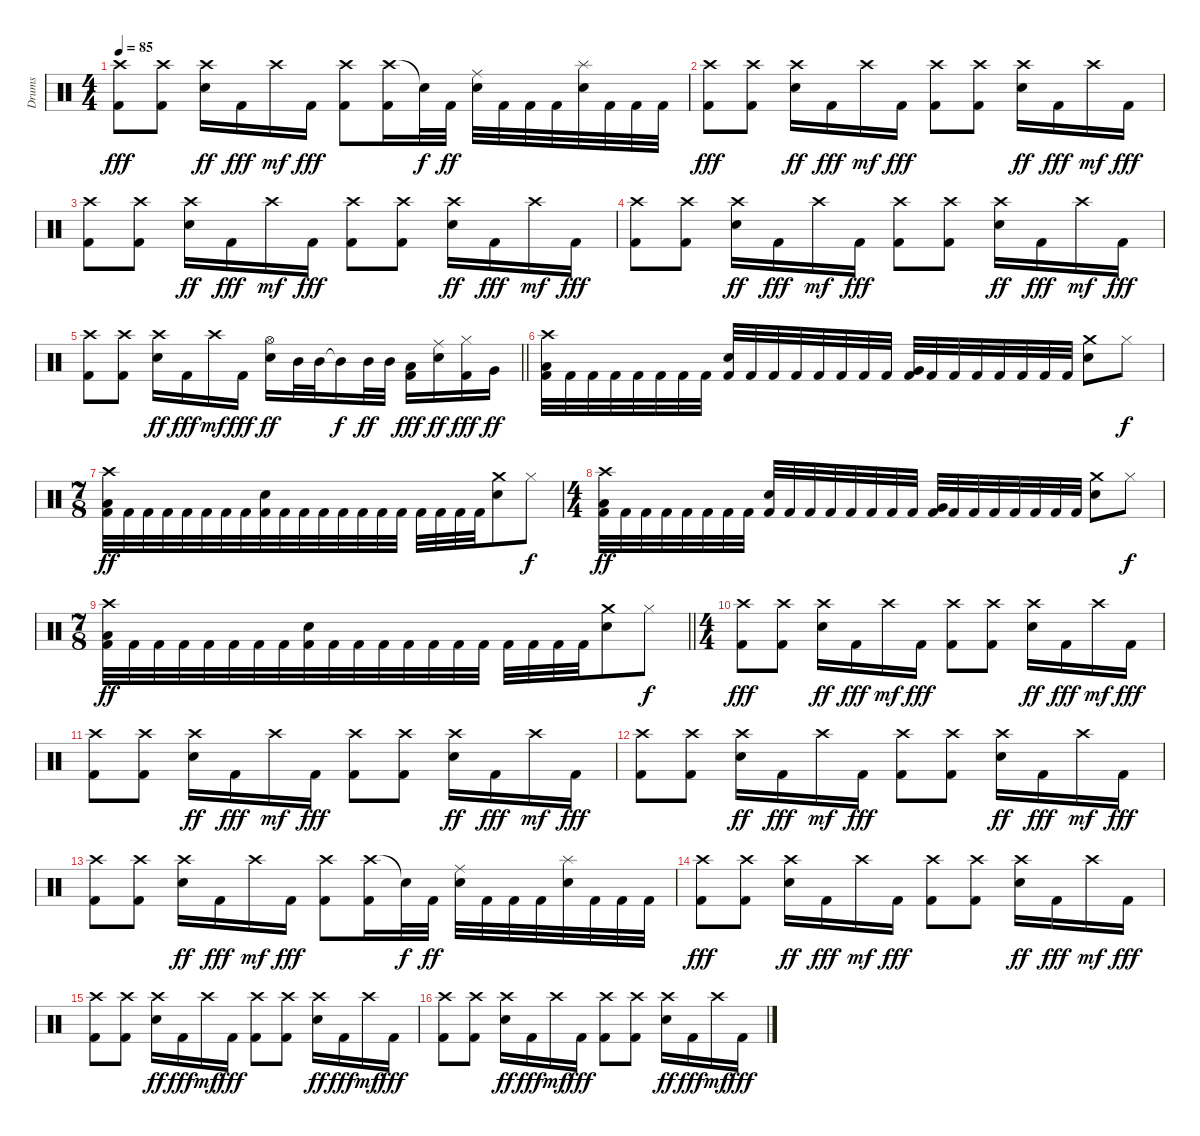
\track ("Drums" "Drums") {instrument percussion}
\staff {score}
\articulation defaults
\ts (4 4)
\tempo 85
\clef neutral
\ks c
("Crash high (hit)" "Kick (hit) 2").8{dy fff} ("Crash high (hit)" "Kick (hit) 2").8 ("Crash high (hit)" "Snare (hit) 2").16{dy ff} "Kick (hit) 2".16{dy fff} "Crash high (hit)".16{dy mf} "Kick (hit) 2".16{dy fff} ("Crash high (hit)" "Kick (hit) 2").8 ("Crash high (hit)" "Kick (hit) 2").16 "Snare (hit)"{t}.32{dy f} "Kick (hit) 2".32{dy ff} ("Ride (middle)" "Snare (hit) 2").32 "Kick (hit) 2".32 "Kick (hit) 2".32 "Kick (hit) 2".32 ("Splash (hit)" "Snare (hit) 2").32 "Kick (hit) 2".32 "Kick (hit) 2".32 "Kick (hit) 2".32 |
("Crash high (hit)" "Kick (hit) 2").8{dy fff} ("Crash high (hit)" "Kick (hit) 2").8 ("Crash high (hit)" "Snare (hit) 2").16{dy ff} "Kick (hit) 2".16{dy fff} "Crash high (hit)".16{dy mf} "Kick (hit) 2".16{dy fff} ("Crash high (hit)" "Kick (hit) 2").8 ("Crash high (hit)" "Kick (hit) 2").8 ("Crash high (hit)" "Snare (hit) 2").16{dy ff} "Kick (hit) 2".16{dy fff} "Crash high (hit)".16{dy mf} "Kick (hit) 2".16{dy fff} |
("Crash high (hit)" "Kick (hit) 2").8 ("Crash high (hit)" "Kick (hit) 2").8 ("Crash high (hit)" "Snare (hit) 2").16{dy ff} "Kick (hit) 2".16{dy fff} "Crash high (hit)".16{dy mf} "Kick (hit) 2".16{dy fff} ("Crash high (hit)" "Kick (hit) 2").8 ("Crash high (hit)" "Kick (hit) 2").8 ("Crash high (hit)" "Snare (hit) 2").16{dy ff} "Kick (hit) 2".16{dy fff} "Crash high (hit)".16{dy mf} "Kick (hit) 2".16{dy fff} |
("Crash high (hit)" "Kick (hit) 2").8 ("Crash high (hit)" "Kick (hit) 2").8 ("Crash high (hit)" "Snare (hit) 2").16{dy ff} "Kick (hit) 2".16{dy fff} "Crash high (hit)".16{dy mf} "Kick (hit) 2".16{dy fff} ("Crash high (hit)" "Kick (hit) 2").8 ("Crash high (hit)" "Kick (hit) 2").8 ("Crash high (hit)" "Snare (hit) 2").16{dy ff} "Kick (hit) 2".16{dy fff} "Crash high (hit)".16{dy mf} "Kick (hit) 2".16{dy fff} |
\barLineRight lightlight
("Crash high (hit)" "Kick (hit) 2").8 ("Crash high (hit)" "Kick (hit) 2").8 ("Crash high (hit)" "Snare (hit) 2").16{dy ff} "Kick (hit) 2".16{dy fff} "Crash high (hit)".16{dy mf} "Kick (hit) 2".16{dy fff} ("Hi-Hat (open)" "Snare (hit) 2").16{dy ff} "Mid Tom (hit)".32 "Mid Tom (hit)".32 "Mid Tom (hit)"{t}.16{dy f} "Mid Tom (hit)".32{dy ff} "Mid Tom (hit)".32 ("Low Tom (hit)" "Kick (hit) 2").16{dy fff} ("Ride (middle)" "Snare (hit) 2").16{dy ff} ("Hi-Hat (closed)" "Kick (hit) 2").16{dy fff} "Very Low Tom (hit)".16{dy ff} |
\section ("" "")
("Crash high (hit)" "Low Tom (hit)" "Kick (hit) 2").32 "Kick (hit) 2".32 "Kick (hit) 2".32 "Kick (hit) 2".32 "Kick (hit) 2".32 "Kick (hit) 2".32 "Kick (hit) 2".32 "Kick (hit) 2".32 ("Snare (hit) 2" "Kick (hit) 2").32 "Kick (hit) 2".32 "Kick (hit) 2".32 "Kick (hit) 2".32 "Kick (hit) 2".32 "Kick (hit) 2".32 "Kick (hit) 2".32 "Kick (hit) 2".32 ("Very Low Tom (hit)" "Kick (hit) 2").32 "Kick (hit) 2".32 "Kick (hit) 2".32 "Kick (hit) 2".32 "Kick (hit) 2".32 "Kick (hit) 2".32 "Kick (hit) 2".32 "Kick (hit) 2".32 ("Crash medium (hit)" "Snare (hit) 2").8 "Hi-Hat (closed)".8{dy f} |
\ts (7 8)
("Crash high (hit)" "Low Tom (hit)" "Kick (hit) 2").32{dy ff} "Kick (hit) 2".32 "Kick (hit) 2".32 "Kick (hit) 2".32 "Kick (hit) 2".32 "Kick (hit) 2".32 "Kick (hit) 2".32 "Kick (hit) 2".32 ("Snare (hit) 2" "Kick (hit) 2").32 "Kick (hit) 2".32 "Kick (hit) 2".32 "Kick (hit) 2".32 "Kick (hit) 2".32 "Kick (hit) 2".32 "Kick (hit) 2".32 "Kick (hit) 2".32 "Kick (hit) 2".32 "Kick (hit) 2".32 "Kick (hit) 2".32 "Kick (hit) 2".32 ("Crash medium (hit)" "Snare (hit) 2").8 "Hi-Hat (closed)".8{dy f} |
\ts (4 4)
("Crash high (hit)" "Low Tom (hit)" "Kick (hit) 2").32{dy ff} "Kick (hit) 2".32 "Kick (hit) 2".32 "Kick (hit) 2".32 "Kick (hit) 2".32 "Kick (hit) 2".32 "Kick (hit) 2".32 "Kick (hit) 2".32 ("Snare (hit) 2" "Kick (hit) 2").32 "Kick (hit) 2".32 "Kick (hit) 2".32 "Kick (hit) 2".32 "Kick (hit) 2".32 "Kick (hit) 2".32 "Kick (hit) 2".32 "Kick (hit) 2".32 ("Very Low Tom (hit)" "Kick (hit) 2").32 "Kick (hit) 2".32 "Kick (hit) 2".32 "Kick (hit) 2".32 "Kick (hit) 2".32 "Kick (hit) 2".32 "Kick (hit) 2".32 "Kick (hit) 2".32 ("Crash medium (hit)" "Snare (hit) 2").8 "Hi-Hat (closed)".8{dy f} |
\ts (7 8)
\barLineRight lightlight
("Crash high (hit)" "Low Tom (hit)" "Kick (hit) 2").32{dy ff} "Kick (hit) 2".32 "Kick (hit) 2".32 "Kick (hit) 2".32 "Kick (hit) 2".32 "Kick (hit) 2".32 "Kick (hit) 2".32 "Kick (hit) 2".32 ("Snare (hit) 2" "Kick (hit) 2").32 "Kick (hit) 2".32 "Kick (hit) 2".32 "Kick (hit) 2".32 "Kick (hit) 2".32 "Kick (hit) 2".32 "Kick (hit) 2".32 "Kick (hit) 2".32 "Kick (hit) 2".32 "Kick (hit) 2".32 "Kick (hit) 2".32 "Kick (hit) 2".32 ("Crash medium (hit)" "Snare (hit) 2").8 "Hi-Hat (closed)".8{dy f} |
\ts (4 4)
\section ("" "")
("Crash high (hit)" "Kick (hit) 2").8{dy fff} ("Crash high (hit)" "Kick (hit) 2").8 ("Crash high (hit)" "Snare (hit) 2").16{dy ff} "Kick (hit) 2".16{dy fff} "Crash high (hit)".16{dy mf} "Kick (hit) 2".16{dy fff} ("Crash high (hit)" "Kick (hit) 2").8 ("Crash high (hit)" "Kick (hit) 2").8 ("Crash high (hit)" "Snare (hit) 2").16{dy ff} "Kick (hit) 2".16{dy fff} "Crash high (hit)".16{dy mf} "Kick (hit) 2".16{dy fff} |
("Crash high (hit)" "Kick (hit) 2").8 ("Crash high (hit)" "Kick (hit) 2").8 ("Crash high (hit)" "Snare (hit) 2").16{dy ff} "Kick (hit) 2".16{dy fff} "Crash high (hit)".16{dy mf} "Kick (hit) 2".16{dy fff} ("Crash high (hit)" "Kick (hit) 2").8 ("Crash high (hit)" "Kick (hit) 2").8 ("Crash high (hit)" "Snare (hit) 2").16{dy ff} "Kick (hit) 2".16{dy fff} "Crash high (hit)".16{dy mf} "Kick (hit) 2".16{dy fff} |
("Crash high (hit)" "Kick (hit) 2").8 ("Crash high (hit)" "Kick (hit) 2").8 ("Crash high (hit)" "Snare (hit) 2").16{dy ff} "Kick (hit) 2".16{dy fff} "Crash high (hit)".16{dy mf} "Kick (hit) 2".16{dy fff} ("Crash high (hit)" "Kick (hit) 2").8 ("Crash high (hit)" "Kick (hit) 2").8 ("Crash high (hit)" "Snare (hit) 2").16{dy ff} "Kick (hit) 2".16{dy fff} "Crash high (hit)".16{dy mf} "Kick (hit) 2".16{dy fff} |
("Crash high (hit)" "Kick (hit) 2").8 ("Crash high (hit)" "Kick (hit) 2").8 ("Crash high (hit)" "Snare (hit) 2").16{dy ff} "Kick (hit) 2".16{dy fff} "Crash high (hit)".16{dy mf} "Kick (hit) 2".16{dy fff} ("Crash high (hit)" "Kick (hit) 2").8 ("Crash high (hit)" "Kick (hit) 2").16 "Snare (hit)"{t}.32{dy f} "Kick (hit) 2".32{dy ff} ("Ride (middle)" "Snare (hit) 2").32 "Kick (hit) 2".32 "Kick (hit) 2".32 "Kick (hit) 2".32 ("Splash (hit)" "Snare (hit) 2").32 "Kick (hit) 2".32 "Kick (hit) 2".32 "Kick (hit) 2".32 |
("Crash high (hit)" "Kick (hit) 2").8{dy fff} ("Crash high (hit)" "Kick (hit) 2").8 ("Crash high (hit)" "Snare (hit) 2").16{dy ff} "Kick (hit) 2".16{dy fff} "Crash high (hit)".16{dy mf} "Kick (hit) 2".16{dy fff} ("Crash high (hit)" "Kick (hit) 2").8 ("Crash high (hit)" "Kick (hit) 2").8 ("Crash high (hit)" "Snare (hit) 2").16{dy ff} "Kick (hit) 2".16{dy fff} "Crash high (hit)".16{dy mf} "Kick (hit) 2".16{dy fff} |
("Crash high (hit)" "Kick (hit) 2").8 ("Crash high (hit)" "Kick (hit) 2").8 ("Crash high (hit)" "Snare (hit) 2").16{dy ff} "Kick (hit) 2".16{dy fff} "Crash high (hit)".16{dy mf} "Kick (hit) 2".16{dy fff} ("Crash high (hit)" "Kick (hit) 2").8 ("Crash high (hit)" "Kick (hit) 2").8 ("Crash high (hit)" "Snare (hit) 2").16{dy ff} "Kick (hit) 2".16{dy fff} "Crash high (hit)".16{dy mf} "Kick (hit) 2".16{dy fff} |
("Crash high (hit)" "Kick (hit) 2").8 ("Crash high (hit)" "Kick (hit) 2").8 ("Crash high (hit)" "Snare (hit) 2").16{dy ff} "Kick (hit) 2".16{dy fff} "Crash high (hit)".16{dy mf} "Kick (hit) 2".16{dy fff} ("Crash high (hit)" "Kick (hit) 2").8 ("Crash high (hit)" "Kick (hit) 2").8 ("Crash high (hit)" "Snare (hit) 2").16{dy ff} "Kick (hit) 2".16{dy fff} "Crash high (hit)".16{dy mf} "Kick (hit) 2".16{dy fff}
